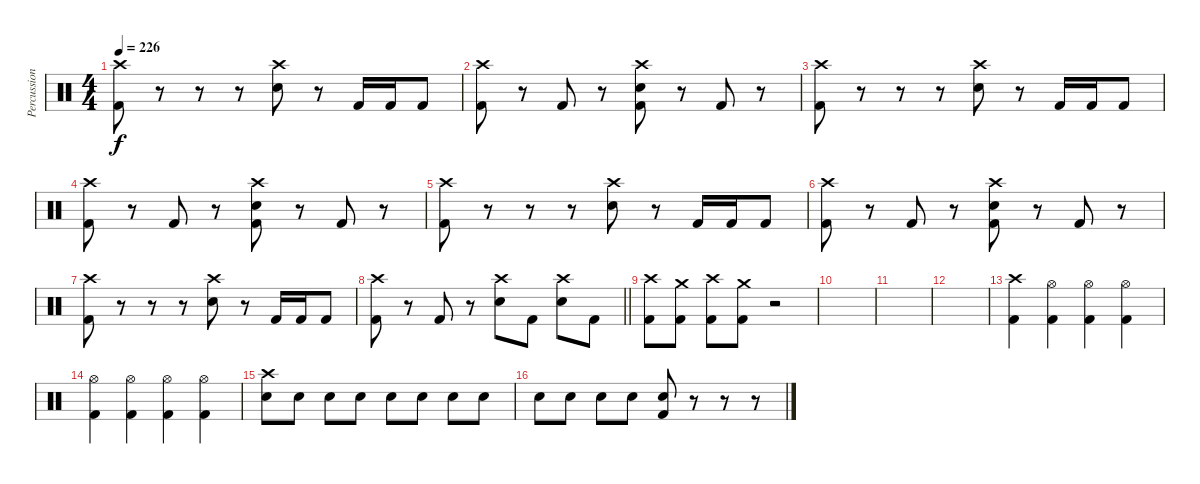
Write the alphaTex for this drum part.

\track ("Percussion" "Percussion") {instrument percussion}
\staff {score}
\articulation defaults
\ts (4 4)
\section ("" "")
\tempo 226
\clef neutral
\ks c
("Crash high (hit)" "Kick (hit) 2").8{dy f} r.8 r.8 r.8 ("Crash high (hit)" "Snare (hit) 2").8 r.8 "Kick (hit) 2".16 "Kick (hit) 2".16 "Kick (hit) 2".8 |
("Crash high (hit)" "Kick (hit) 2").8 r.8 "Kick (hit) 2".8 r.8 ("Crash high (hit)" "Snare (hit) 2" "Kick (hit) 2").8 r.8 "Kick (hit) 2".8 r.8 |
("Crash high (hit)" "Kick (hit) 2").8 r.8 r.8 r.8 ("Crash high (hit)" "Snare (hit) 2").8 r.8 "Kick (hit) 2".16 "Kick (hit) 2".16 "Kick (hit) 2".8 |
("Crash high (hit)" "Kick (hit) 2").8 r.8 "Kick (hit) 2".8 r.8 ("Crash high (hit)" "Snare (hit) 2" "Kick (hit) 2").8 r.8 "Kick (hit) 2".8 r.8 |
("Crash high (hit)" "Kick (hit) 2").8 r.8 r.8 r.8 ("Crash high (hit)" "Snare (hit) 2").8 r.8 "Kick (hit) 2".16 "Kick (hit) 2".16 "Kick (hit) 2".8 |
("Crash high (hit)" "Kick (hit) 2").8 r.8 "Kick (hit) 2".8 r.8 ("Crash high (hit)" "Snare (hit) 2" "Kick (hit) 2").8 r.8 "Kick (hit) 2".8 r.8 |
("Crash high (hit)" "Kick (hit) 2").8 r.8 r.8 r.8 ("Crash high (hit)" "Snare (hit) 2").8 r.8 "Kick (hit) 2".16 "Kick (hit) 2".16 "Kick (hit) 2".8 |
\barLineRight lightlight
("Crash high (hit)" "Kick (hit) 2").8 r.8 "Kick (hit) 2".8 r.8 ("Crash high (hit)" "Snare (hit) 2").8 "Kick (hit) 2".8 ("Crash high (hit)" "Snare (hit) 2").8 "Kick (hit) 2".8 |
\section ("" "")
("Crash high (hit)" "Kick (hit) 2").8 ("Crash medium (hit)" "Kick (hit) 2").8 ("Crash high (hit)" "Kick (hit) 2").8 ("Crash medium (hit)" "Kick (hit) 2").8 r.2 |
|
|
|
("Crash high (hit)" "Kick (hit) 2").4 ("Hi-Hat (open)" "Kick (hit) 2").4 ("Hi-Hat (open)" "Kick (hit) 2").4 ("Hi-Hat (open)" "Kick (hit) 2").4 |
("Hi-Hat (open)" "Kick (hit) 2").4 ("Hi-Hat (open)" "Kick (hit) 2").4 ("Hi-Hat (open)" "Kick (hit) 2").4 ("Hi-Hat (open)" "Kick (hit) 2").4 |
("Crash high (hit)" "Snare (hit) 2").8 "Snare (hit) 2".8 "Snare (hit) 2".8 "Snare (hit) 2".8 "Snare (hit) 2".8 "Snare (hit) 2".8 "Snare (hit) 2".8 "Snare (hit) 2".8 |
"Snare (hit) 2".8 "Snare (hit) 2".8 "Snare (hit) 2".8 "Snare (hit) 2".8 ("Snare (hit) 2" "Kick (hit) 2").8 r.8 r.8 r.8
